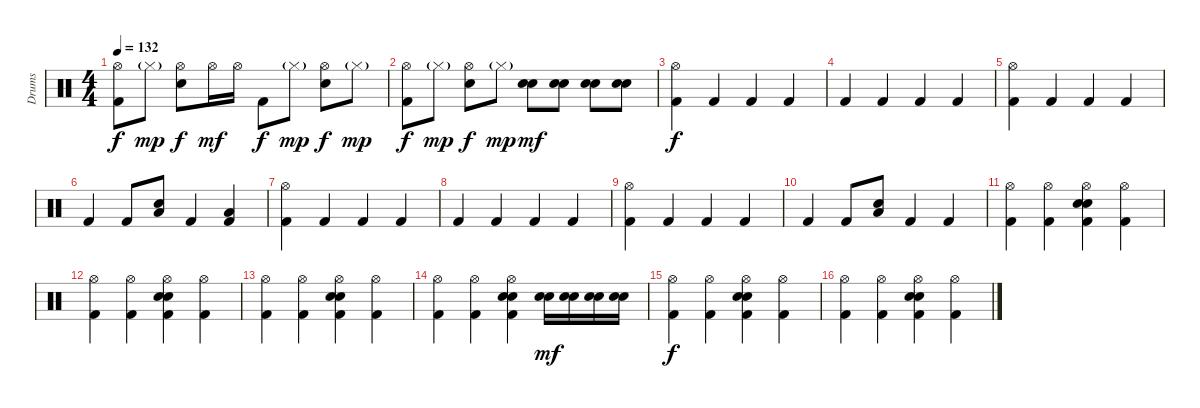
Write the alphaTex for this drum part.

\track ("Drums" "Drums") {instrument percussion}
\staff {score}
\articulation defaults
\ts (4 4)
\tempo 132
\clef neutral
\ks c
("Hi-Hat (open)" "Kick (hit) 2").8{dy f} "Hi-Hat (closed)"{g}.8{dy mp} ("Hi-Hat (open)" "Snare (hit) 2").8{dy f} "Hi-Hat (open)".16{dy mf} "Hi-Hat (open)".16 "Kick (hit) 2".8{dy f} "Hi-Hat (closed)"{g}.8{dy mp} ("Hi-Hat (open)" "Snare (hit) 2").8{dy f} "Hi-Hat (closed)"{g}.8{dy mp} |
("Hi-Hat (open)" "Kick (hit) 2").8{dy f} "Hi-Hat (closed)"{g}.8{dy mp} ("Hi-Hat (open)" "Snare (hit) 2").8{dy f} "Hi-Hat (closed)"{g}.8{dy mp} ("Electric Snare (hit)" "Snare (hit) 2").8{dy mf} ("Electric Snare (hit)" "Snare (hit) 2").8 ("Electric Snare (hit)" "Snare (hit) 2").8 ("Electric Snare (hit)" "Snare (hit) 2").8 |
("Hi-Hat (open)" "Kick (hit) 2").4{dy f} "Kick (hit) 2".4 "Kick (hit) 2".4 "Kick (hit) 2".4 |
"Kick (hit) 2".4 "Kick (hit) 2".4 "Kick (hit) 2".4 "Kick (hit) 2".4 |
("Hi-Hat (open)" "Kick (hit) 2").4 "Kick (hit) 2".4 "Kick (hit) 2".4 "Kick (hit) 2".4 |
"Kick (hit) 2".4 "Kick (hit) 2".8 ("Low Floor Tom (hit)" "Electric Snare (hit)").8 "Kick (hit) 2".4 ("Low Tom (hit)" "Kick (hit) 2").4 |
("Hi-Hat (open)" "Kick (hit) 2").4 "Kick (hit) 2".4 "Kick (hit) 2".4 "Kick (hit) 2".4 |
"Kick (hit) 2".4 "Kick (hit) 2".4 "Kick (hit) 2".4 "Kick (hit) 2".4 |
("Hi-Hat (open)" "Kick (hit) 2").4 "Kick (hit) 2".4 "Kick (hit) 2".4 "Kick (hit) 2".4 |
"Kick (hit) 2".4 "Kick (hit) 2".8 ("Low Floor Tom (hit)" "Electric Snare (hit)").8 "Kick (hit) 2".4 "Kick (hit) 2".4 |
("Hi-Hat (open)" "Kick (hit) 2").4 ("Hi-Hat (open)" "Kick (hit) 2").4 ("Hi-Hat (open)" "Electric Snare (hit)" "Snare (hit) 2" "Kick (hit) 2").4 ("Hi-Hat (open)" "Kick (hit) 2").4 |
("Hi-Hat (open)" "Kick (hit) 2").4 ("Hi-Hat (open)" "Kick (hit) 2").4 ("Hi-Hat (open)" "Electric Snare (hit)" "Snare (hit) 2" "Kick (hit) 2").4 ("Hi-Hat (open)" "Kick (hit) 2").4 |
("Hi-Hat (open)" "Kick (hit) 2").4 ("Hi-Hat (open)" "Kick (hit) 2").4 ("Hi-Hat (open)" "Electric Snare (hit)" "Snare (hit) 2" "Kick (hit) 2").4 ("Hi-Hat (open)" "Kick (hit) 2").4 |
("Hi-Hat (open)" "Kick (hit) 2").4 ("Hi-Hat (open)" "Kick (hit) 2").4 ("Hi-Hat (open)" "Electric Snare (hit)" "Snare (hit) 2" "Kick (hit) 2").4 ("Electric Snare (hit)" "Snare (hit) 2").16{dy mf} ("Electric Snare (hit)" "Snare (hit) 2").16 ("Electric Snare (hit)" "Snare (hit) 2").16 ("Electric Snare (hit)" "Snare (hit) 2").16 |
("Hi-Hat (open)" "Kick (hit) 2").4{dy f} ("Hi-Hat (open)" "Kick (hit) 2").4 ("Hi-Hat (open)" "Electric Snare (hit)" "Snare (hit) 2" "Kick (hit) 2").4 ("Hi-Hat (open)" "Kick (hit) 2").4 |
("Hi-Hat (open)" "Kick (hit) 2").4 ("Hi-Hat (open)" "Kick (hit) 2").4 ("Hi-Hat (open)" "Electric Snare (hit)" "Snare (hit) 2" "Kick (hit) 2").4 ("Hi-Hat (open)" "Kick (hit) 2").4
